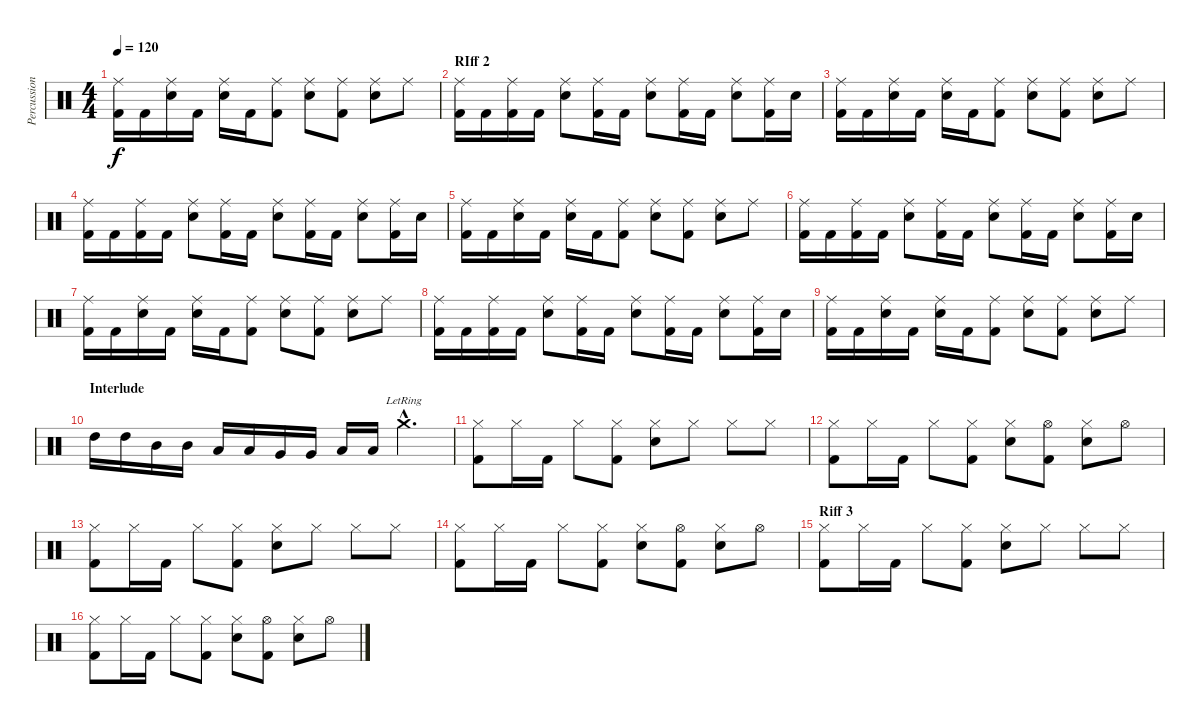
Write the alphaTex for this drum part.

\track ("Percussion" "Percussion") {instrument percussion}
\staff {score}
\articulation defaults
\ts (4 4)
\tempo 120
\clef neutral
\ks c
("Ride (middle)" "Kick (hit) 2").16{dy f} "Kick (hit) 2".16 ("Ride (middle)" "Snare (hit) 2").16 "Kick (hit) 2".16 ("Ride (middle)" "Snare (hit) 2").16 "Kick (hit) 2".16 ("Ride (middle)" "Kick (hit) 2").8 ("Ride (middle)" "Snare (hit) 2").8 ("Ride (middle)" "Kick (hit) 2").8 ("Ride (middle)" "Snare (hit) 2").8 "Ride (middle)".8 |
\section ("" "RIff 2")
("Ride (middle)" "Kick (hit) 2").16 "Kick (hit) 2".16 ("Ride (middle)" "Kick (hit) 2").16 "Kick (hit) 2".16 ("Ride (middle)" "Snare (hit) 2").8 ("Ride (middle)" "Kick (hit) 2").16 "Kick (hit) 2".16 ("Ride (middle)" "Snare (hit) 2").8 ("Ride (middle)" "Kick (hit) 2").16 "Kick (hit) 2".16 ("Ride (middle)" "Snare (hit) 2").8 ("Ride (middle)" "Kick (hit) 2").16 "Snare (hit) 2".16 |
("Ride (middle)" "Kick (hit) 2").16 "Kick (hit) 2".16 ("Ride (middle)" "Snare (hit) 2").16 "Kick (hit) 2".16 ("Ride (middle)" "Snare (hit) 2").16 "Kick (hit) 2".16 ("Ride (middle)" "Kick (hit) 2").8 ("Ride (middle)" "Snare (hit) 2").8 ("Ride (middle)" "Kick (hit) 2").8 ("Ride (middle)" "Snare (hit) 2").8 "Ride (middle)".8 |
("Ride (middle)" "Kick (hit) 2").16 "Kick (hit) 2".16 ("Ride (middle)" "Kick (hit) 2").16 "Kick (hit) 2".16 ("Ride (middle)" "Snare (hit) 2").8 ("Ride (middle)" "Kick (hit) 2").16 "Kick (hit) 2".16 ("Ride (middle)" "Snare (hit) 2").8 ("Ride (middle)" "Kick (hit) 2").16 "Kick (hit) 2".16 ("Ride (middle)" "Snare (hit) 2").8 ("Ride (middle)" "Kick (hit) 2").16 "Snare (hit) 2".16 |
("Ride (middle)" "Kick (hit) 2").16 "Kick (hit) 2".16 ("Ride (middle)" "Snare (hit) 2").16 "Kick (hit) 2".16 ("Ride (middle)" "Snare (hit) 2").16 "Kick (hit) 2".16 ("Ride (middle)" "Kick (hit) 2").8 ("Ride (middle)" "Snare (hit) 2").8 ("Ride (middle)" "Kick (hit) 2").8 ("Ride (middle)" "Snare (hit) 2").8 "Ride (middle)".8 |
("Ride (middle)" "Kick (hit) 2").16 "Kick (hit) 2".16 ("Ride (middle)" "Kick (hit) 2").16 "Kick (hit) 2".16 ("Ride (middle)" "Snare (hit) 2").8 ("Ride (middle)" "Kick (hit) 2").16 "Kick (hit) 2".16 ("Ride (middle)" "Snare (hit) 2").8 ("Ride (middle)" "Kick (hit) 2").16 "Kick (hit) 2".16 ("Ride (middle)" "Snare (hit) 2").8 ("Ride (middle)" "Kick (hit) 2").16 "Snare (hit) 2".16 |
("Ride (middle)" "Kick (hit) 2").16 "Kick (hit) 2".16 ("Ride (middle)" "Snare (hit) 2").16 "Kick (hit) 2".16 ("Ride (middle)" "Snare (hit) 2").16 "Kick (hit) 2".16 ("Ride (middle)" "Kick (hit) 2").8 ("Ride (middle)" "Snare (hit) 2").8 ("Ride (middle)" "Kick (hit) 2").8 ("Ride (middle)" "Snare (hit) 2").8 "Ride (middle)".8 |
("Ride (middle)" "Kick (hit) 2").16 "Kick (hit) 2".16 ("Ride (middle)" "Kick (hit) 2").16 "Kick (hit) 2".16 ("Ride (middle)" "Snare (hit) 2").8 ("Ride (middle)" "Kick (hit) 2").16 "Kick (hit) 2".16 ("Ride (middle)" "Snare (hit) 2").8 ("Ride (middle)" "Kick (hit) 2").16 "Kick (hit) 2".16 ("Ride (middle)" "Snare (hit) 2").8 ("Ride (middle)" "Kick (hit) 2").16 "Snare (hit) 2".16 |
("Ride (middle)" "Kick (hit) 2").16 "Kick (hit) 2".16 ("Ride (middle)" "Snare (hit) 2").16 "Kick (hit) 2".16 ("Ride (middle)" "Snare (hit) 2").16 "Kick (hit) 2".16 ("Ride (middle)" "Kick (hit) 2").8 ("Ride (middle)" "Snare (hit) 2").8 ("Ride (middle)" "Kick (hit) 2").8 ("Ride (middle)" "Snare (hit) 2").8 "Ride (middle)".8 |
\section ("" "Interlude")
"High Tom (hit)".16 "High Tom (hit)".16 "Mid Tom (hit)".16 "Mid Tom (hit)".16 "Low Tom (hit)".16 "Low Tom (hit)".16 "Very Low Tom (hit)".16 "Very Low Tom (hit)".16 "Low Floor Tom (hit)".16 "Low Floor Tom (hit)".16 "Crash medium (hit)"{hac lr}.4{d} |
("Hi-Hat (closed)" "Kick (hit) 2").8 "Hi-Hat (closed)".16 "Kick (hit) 2".16 "Hi-Hat (closed)".8 ("Hi-Hat (closed)" "Kick (hit) 2").8 ("Hi-Hat (closed)" "Snare (hit) 2").8 "Hi-Hat (closed)".8 "Hi-Hat (closed)".8 "Hi-Hat (closed)".8 |
("Hi-Hat (closed)" "Kick (hit) 2").8 "Hi-Hat (closed)".16 "Kick (hit) 2".16 "Hi-Hat (closed)".8 ("Hi-Hat (closed)" "Kick (hit) 2").8 ("Hi-Hat (closed)" "Snare (hit) 2").8 ("Hi-Hat (open)" "Kick (hit) 2").8 ("Hi-Hat (closed)" "Snare (hit) 2").8 "Hi-Hat (open)".8 |
("Hi-Hat (closed)" "Kick (hit) 2").8 "Hi-Hat (closed)".16 "Kick (hit) 2".16 "Hi-Hat (closed)".8 ("Hi-Hat (closed)" "Kick (hit) 2").8 ("Hi-Hat (closed)" "Snare (hit) 2").8 "Hi-Hat (closed)".8 "Hi-Hat (closed)".8 "Hi-Hat (closed)".8 |
("Hi-Hat (closed)" "Kick (hit) 2").8 "Hi-Hat (closed)".16 "Kick (hit) 2".16 "Hi-Hat (closed)".8 ("Hi-Hat (closed)" "Kick (hit) 2").8 ("Hi-Hat (closed)" "Snare (hit) 2").8 ("Hi-Hat (open)" "Kick (hit) 2").8 ("Hi-Hat (closed)" "Snare (hit) 2").8 "Hi-Hat (open)".8 |
\section ("" "Riff 3")
("Hi-Hat (closed)" "Kick (hit) 2").8 "Hi-Hat (closed)".16 "Kick (hit) 2".16 "Hi-Hat (closed)".8 ("Hi-Hat (closed)" "Kick (hit) 2").8 ("Hi-Hat (closed)" "Snare (hit) 2").8 "Hi-Hat (closed)".8 "Hi-Hat (closed)".8 "Hi-Hat (closed)".8 |
("Hi-Hat (closed)" "Kick (hit) 2").8 "Hi-Hat (closed)".16 "Kick (hit) 2".16 "Hi-Hat (closed)".8 ("Hi-Hat (closed)" "Kick (hit) 2").8 ("Hi-Hat (closed)" "Snare (hit) 2").8 ("Hi-Hat (open)" "Kick (hit) 2").8 ("Hi-Hat (closed)" "Snare (hit) 2").8 "Hi-Hat (open)".8
